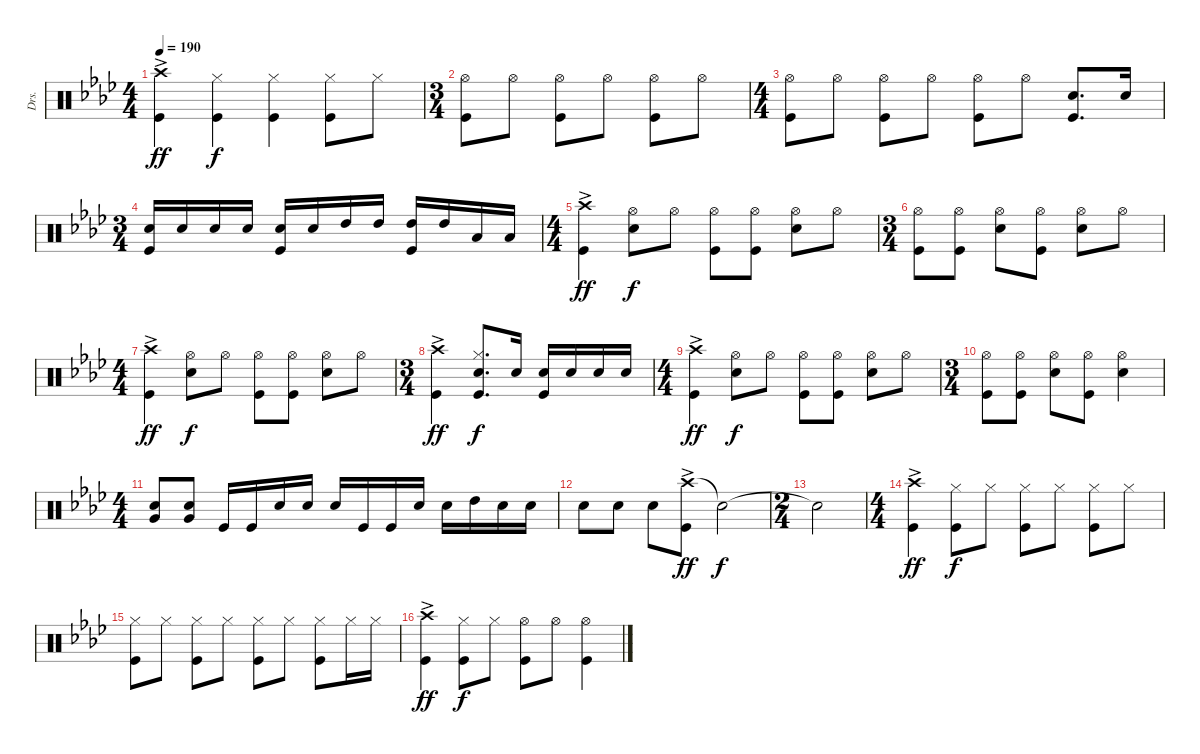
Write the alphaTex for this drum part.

\track ("Drs." "Drs.") {instrument percussion}
\staff {score}
\articulation defaults
\ts (4 4)
\tempo 190
\clef neutral
\ks ab
("Crash high (hit)"{ac} "Kick (hit)").4{dy ff} ("Hi-Hat (closed)" "Kick (hit)").4{dy f} ("Hi-Hat (closed)" "Kick (hit)").4 ("Hi-Hat (closed)" "Kick (hit)").8 "Hi-Hat (closed)".8 |
\ts (3 4)
("Hi-Hat (open)" "Kick (hit)").8 "Hi-Hat (open)".8 ("Hi-Hat (open)" "Kick (hit)").8 "Hi-Hat (open)".8 ("Hi-Hat (open)" "Kick (hit)").8 "Hi-Hat (open)".8 |
\ts (4 4)
("Hi-Hat (open)" "Kick (hit)").8 "Hi-Hat (open)".8 ("Hi-Hat (open)" "Kick (hit)").8 "Hi-Hat (open)".8 ("Hi-Hat (open)" "Kick (hit)").8 "Hi-Hat (open)".8 ("Snare (hit) 2" "Kick (hit)").8{d} "Snare (hit) 2".16 |
\ts (3 4)
("Snare (hit) 2" "Kick (hit)").16 "Snare (hit) 2".16 "Snare (hit) 2".16 "Snare (hit) 2".16 ("Snare (hit) 2" "Kick (hit)").16 "Snare (hit) 2".16 "High Tom (hit)".16 "High Tom (hit)".16 ("High Tom (hit)" "Kick (hit)").16 "High Tom (hit)".16 "Low Tom (hit)".16 "Low Tom (hit)".16 |
\ts (4 4)
("Crash high (hit)"{ac} "Kick (hit)").4{dy ff} ("Hi-Hat (open)" "Snare (hit) 2").8{dy f} "Hi-Hat (open)".8 ("Hi-Hat (open)" "Kick (hit)").8 ("Hi-Hat (open)" "Kick (hit)").8 ("Hi-Hat (open)" "Snare (hit) 2").8 "Hi-Hat (open)".8 |
\ts (3 4)
("Hi-Hat (open)" "Kick (hit)").8 ("Hi-Hat (open)" "Kick (hit)").8 ("Hi-Hat (open)" "Snare (hit) 2").8 ("Hi-Hat (open)" "Kick (hit)").8 ("Hi-Hat (open)" "Snare (hit) 2").8 "Hi-Hat (open)".8 |
\ts (4 4)
("Crash high (hit)"{ac} "Kick (hit)").4{dy ff} ("Hi-Hat (open)" "Snare (hit) 2").8{dy f} "Hi-Hat (open)".8 ("Hi-Hat (open)" "Kick (hit)").8 ("Hi-Hat (open)" "Kick (hit)").8 ("Hi-Hat (open)" "Snare (hit) 2").8 "Hi-Hat (open)".8 |
\ts (3 4)
("Crash high (hit)"{ac} "Kick (hit)").4{dy ff} ("Hi-Hat (closed)" "Snare (hit) 2" "Kick (hit)").8{d dy f} "Snare (hit) 2".16 ("Snare (hit) 2" "Kick (hit)").16 "Snare (hit) 2".16 "Snare (hit) 2".16 "Snare (hit) 2".16 |
\ts (4 4)
("Crash high (hit)"{ac} "Kick (hit)").4{dy ff} ("Hi-Hat (open)" "Snare (hit) 2").8{dy f} "Hi-Hat (open)".8 ("Hi-Hat (open)" "Kick (hit)").8 ("Hi-Hat (open)" "Kick (hit)").8 ("Hi-Hat (open)" "Snare (hit) 2").8 "Hi-Hat (open)".8 |
\ts (3 4)
("Hi-Hat (open)" "Kick (hit)").8 ("Hi-Hat (open)" "Kick (hit)").8 ("Hi-Hat (open)" "Snare (hit) 2").8 ("Hi-Hat (open)" "Kick (hit)").8 ("Hi-Hat (open)" "Snare (hit) 2").4 |
\ts (4 4)
("Snare (hit) 2" "Very Low Tom (hit)").8 ("Snare (hit) 2" "Very Low Tom (hit)").8 "Kick (hit)".16 "Kick (hit)".16 "Snare (hit) 2".16 "Snare (hit) 2".16 "Snare (hit) 2".16 "Kick (hit)".16 "Kick (hit)".16 "Snare (hit) 2".16 "Snare (hit) 2".16 "High Tom (hit)".16 "Snare (hit) 2".16 "Snare (hit) 2".16 |
"Snare (hit) 2".8 "Snare (hit) 2".8 "Snare (hit) 2".8 ("Crash high (hit)"{ac} "Kick (hit)").8{dy ff} "Snare (hit)"{t}.2{dy f} |
\ts (2 4)
"Snare (hit)"{t}.2 |
\ts (4 4)
("Crash high (hit)"{ac} "Kick (hit)").4{dy ff} ("Hi-Hat (closed)" "Kick (hit)").8{dy f} "Hi-Hat (closed)".8 ("Hi-Hat (closed)" "Kick (hit)").8 "Hi-Hat (closed)".8 ("Hi-Hat (closed)" "Kick (hit)").8 "Hi-Hat (closed)".8 |
("Hi-Hat (closed)" "Kick (hit)").8 "Hi-Hat (closed)".8 ("Hi-Hat (closed)" "Kick (hit)").8 "Hi-Hat (closed)".8 ("Hi-Hat (closed)" "Kick (hit)").8 "Hi-Hat (closed)".8 ("Hi-Hat (closed)" "Kick (hit)").8 "Hi-Hat (closed)".16 "Hi-Hat (closed)".16 |
("Crash high (hit)"{ac} "Kick (hit)").4{dy ff} ("Hi-Hat (closed)" "Kick (hit)").8{dy f} "Hi-Hat (closed)".8 ("Hi-Hat (open)" "Kick (hit)").8 "Hi-Hat (open)".8 ("Hi-Hat (open)" "Kick (hit)").4
